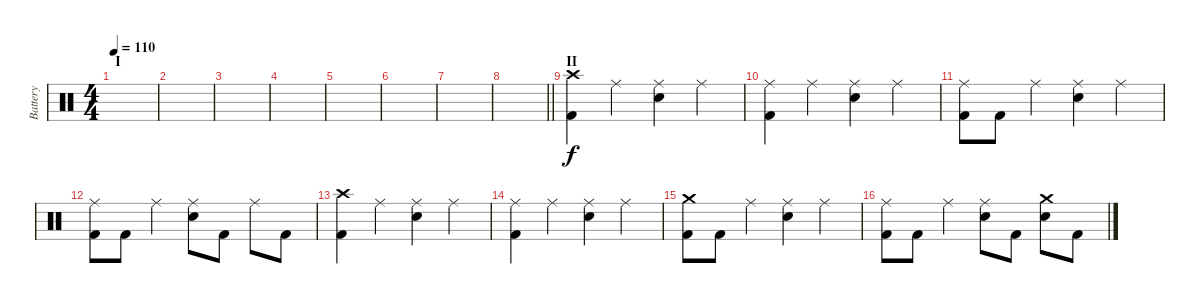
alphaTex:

\track ("Battery" "Battery") {instrument percussion}
\staff {score}
\articulation defaults
\ts (4 4)
\section ("" "I")
\tempo 110
\clef neutral
\ks c
|
|
|
|
|
|
|
\barLineRight lightlight
|
\section ("" "II")
("Crash high (hit)" "Kick (hit) 2").4 "Ride (middle)".4 ("Ride (middle)" "Electric Snare (hit)").4 "Ride (middle)".4 |
("Ride (middle)" "Kick (hit) 2").4 "Ride (middle)".4 ("Ride (middle)" "Electric Snare (hit)").4 "Ride (middle)".4 |
("Ride (middle)" "Kick (hit) 2").8 "Kick (hit) 2".8 "Ride (middle)".4 ("Ride (middle)" "Electric Snare (hit)").4 "Ride (middle)".4 |
("Ride (middle)" "Kick (hit) 2").8 "Kick (hit) 2".8 "Ride (middle)".4 ("Ride (middle)" "Electric Snare (hit)").8 "Kick (hit) 2".8 "Ride (middle)".8 "Kick (hit) 2".8 |
("Crash high (hit)" "Kick (hit) 2").4 "Ride (middle)".4 ("Ride (middle)" "Electric Snare (hit)").4 "Ride (middle)".4 |
("Ride (middle)" "Kick (hit) 2").4 "Ride (middle)".4 ("Ride (middle)" "Electric Snare (hit)").4 "Ride (middle)".4 |
("Crash medium (hit)" "Kick (hit) 2").8 "Kick (hit) 2".8 "Ride (middle)".4 ("Ride (middle)" "Electric Snare (hit)").4 "Ride (middle)".4 |
("Ride (middle)" "Kick (hit) 2").8 "Kick (hit) 2".8 "Ride (middle)".4 ("Ride (middle)" "Electric Snare (hit)").8 "Kick (hit) 2".8 ("Crash medium (hit)" "Electric Snare (hit)").8 "Kick (hit) 2".8
